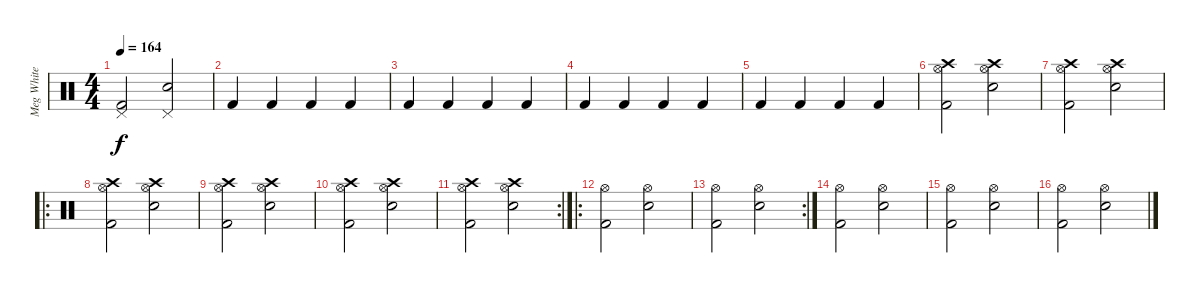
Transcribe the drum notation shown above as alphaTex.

\track ("Meg White" "Meg White") {instrument percussion}
\staff {score}
\articulation defaults
\ts (4 4)
\tempo 164
\clef neutral
\ks c
("Pedal Hi-Hat (hit)" "Kick (hit) 2").2{dy f} ("Pedal Hi-Hat (hit)" "Electric Snare (hit)").2 |
"Kick (hit) 2".4 "Kick (hit) 2".4 "Kick (hit) 2".4 "Kick (hit) 2".4 |
"Kick (hit) 2".4 "Kick (hit) 2".4 "Kick (hit) 2".4 "Kick (hit) 2".4 |
"Kick (hit) 2".4 "Kick (hit) 2".4 "Kick (hit) 2".4 "Kick (hit) 2".4 |
"Kick (hit) 2".4 "Kick (hit) 2".4 "Kick (hit) 2".4 "Kick (hit) 2".4 |
("Crash high (hit)" "Hi-Hat (open)" "Kick (hit) 2").2 ("Crash high (hit)" "Hi-Hat (open)" "Electric Snare (hit)").2 |
("Crash high (hit)" "Hi-Hat (open)" "Kick (hit) 2").2 ("Crash high (hit)" "Hi-Hat (open)" "Electric Snare (hit)").2 |
\ro
("Crash high (hit)" "Hi-Hat (open)" "Kick (hit) 2").2 ("Crash high (hit)" "Hi-Hat (open)" "Electric Snare (hit)").2 |
("Crash high (hit)" "Hi-Hat (open)" "Kick (hit) 2").2 ("Crash high (hit)" "Hi-Hat (open)" "Electric Snare (hit)").2 |
("Crash high (hit)" "Hi-Hat (open)" "Kick (hit) 2").2 ("Crash high (hit)" "Hi-Hat (open)" "Electric Snare (hit)").2 |
\rc 2
("Crash high (hit)" "Hi-Hat (open)" "Kick (hit) 2").2 ("Crash high (hit)" "Hi-Hat (open)" "Electric Snare (hit)").2 |
\ro
("Hi-Hat (open)" "Kick (hit) 2").2 ("Hi-Hat (open)" "Snare (hit) 2").2 |
\rc 2
("Hi-Hat (open)" "Kick (hit) 2").2 ("Hi-Hat (open)" "Snare (hit) 2").2 |
("Hi-Hat (open)" "Kick (hit) 2").2 ("Hi-Hat (open)" "Snare (hit) 2").2 |
("Hi-Hat (open)" "Kick (hit) 2").2 ("Hi-Hat (open)" "Snare (hit) 2").2 |
("Hi-Hat (open)" "Kick (hit) 2").2 ("Hi-Hat (open)" "Snare (hit) 2").2
